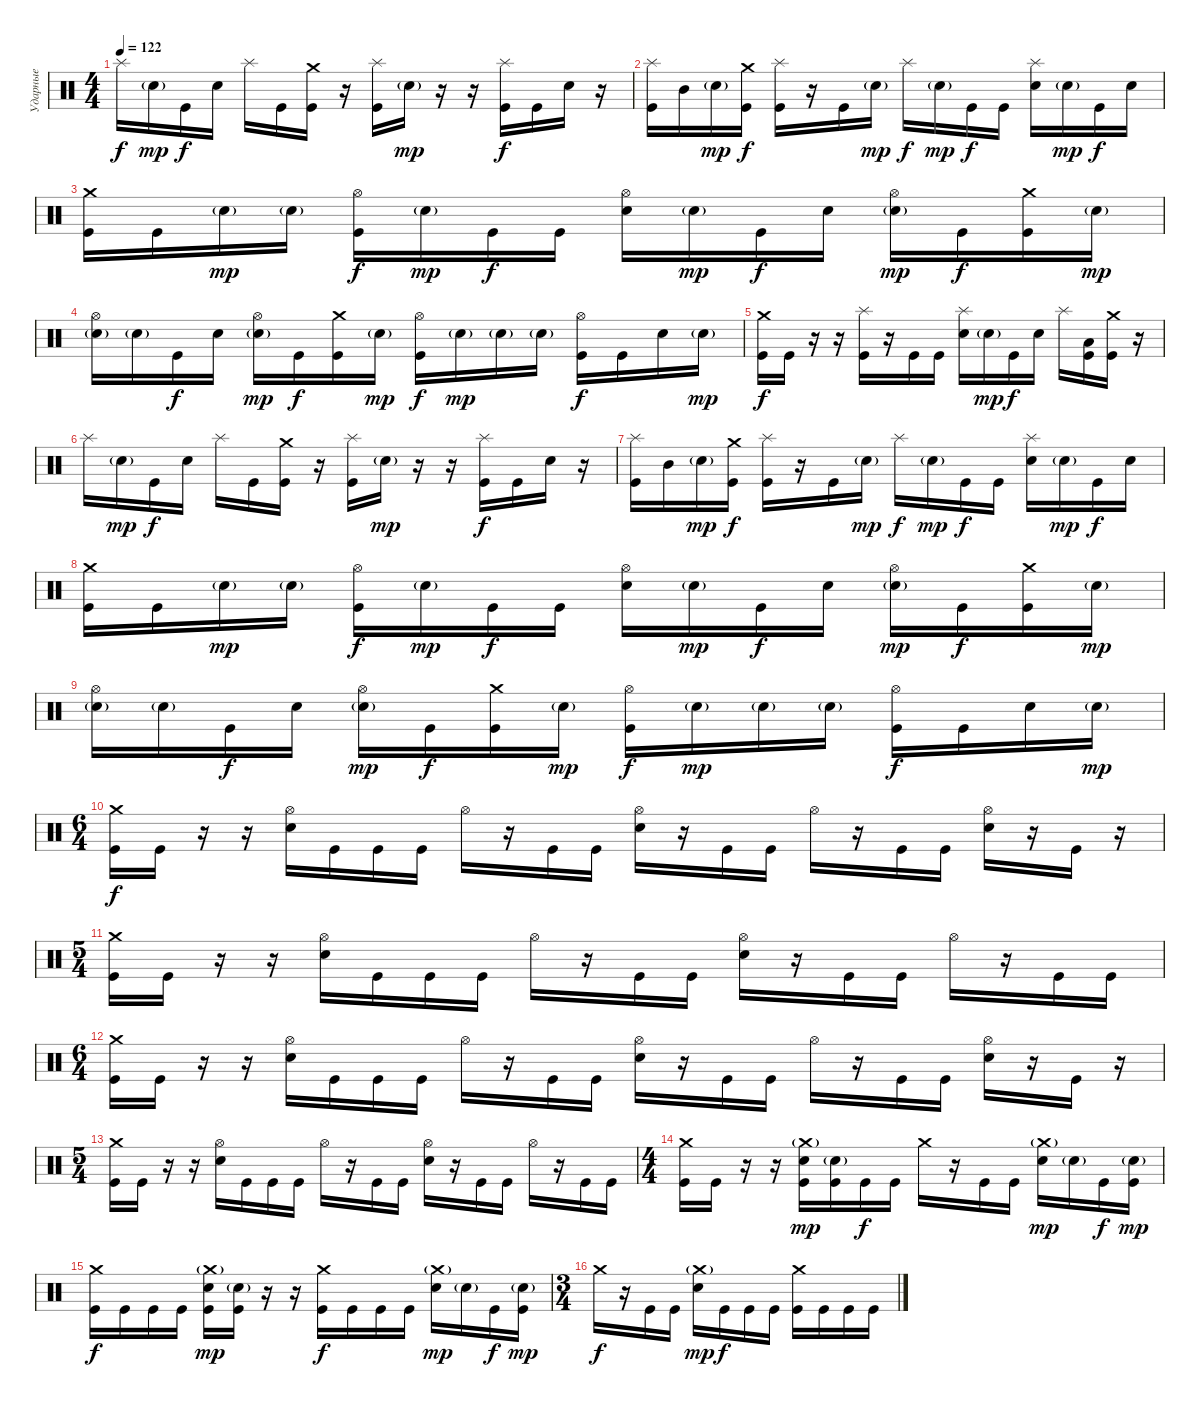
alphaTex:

\track ("Ударные" "Ударные") {instrument percussion}
\staff {score}
\articulation defaults
\ts (4 4)
\tempo 122
\clef neutral
\ks c "Splash (hit)".16{dy f} "Electric Snare (hit)"{g}.16{dy mp} "Kick (hit)".16{dy f} "Electric Snare (hit)".16 "Splash (hit)".16 "Kick (hit)".16
("Crash medium (hit)" "Kick (hit)").16 r.16 ("Splash (hit)" "Kick (hit)").16 "Electric Snare (hit)"{g}.16{dy mp} r.16 r.16 ("Splash (hit)" "Kick (hit)").16{dy f} "Kick (hit)".16 "Electric Snare (hit)".16 r.16 |
("Splash (hit)" "Kick (hit)").16 "Mid Tom (hit)".16 "Electric Snare (hit)"{g}.16{dy mp} ("Crash medium (hit)" "Kick (hit)").16{dy f} ("Splash (hit)" "Kick (hit)").16 r.16 "Kick (hit)".16 "Electric Snare (hit)"{g}.16{dy mp} "Splash (hit)".16{dy f} "Electric Snare (hit)"{g}.16{dy mp} "Kick (hit)".16{dy f} "Kick (hit)".16 ("Splash (hit)" "Electric Snare (hit)").16 "Electric Snare (hit)"{g}.16{dy mp} "Kick (hit)".16{dy f} "Electric Snare (hit)".16 |
("Crash medium (hit)" "Kick (hit)").16 "Kick (hit)".16 "Electric Snare (hit)"{g}.16{dy mp} "Electric Snare (hit)"{g}.16 ("Hi-Hat (open)" "Kick (hit)").16{dy f} "Electric Snare (hit)"{g}.16{dy mp} "Kick (hit)".16{dy f} "Kick (hit)".16 ("Hi-Hat (open)" "Electric Snare (hit)").16 "Electric Snare (hit)"{g}.16{dy mp} "Kick (hit)".16{dy f} "Electric Snare (hit)".16 ("Hi-Hat (open)" "Electric Snare (hit)"{g}).16{dy mp} "Kick (hit)".16{dy f} ("Crash medium (hit)" "Kick (hit)").16 "Electric Snare (hit)"{g}.16{dy mp} |
("Hi-Hat (open)" "Electric Snare (hit)"{g}).16 "Electric Snare (hit)"{g}.16 "Kick (hit)".16{dy f} "Electric Snare (hit)".16 ("Hi-Hat (open)" "Electric Snare (hit)"{g}).16{dy mp} "Kick (hit)".16{dy f} ("Crash medium (hit)" "Kick (hit)").16 "Electric Snare (hit)"{g}.16{dy mp} ("Hi-Hat (open)" "Kick (hit)").16{dy f} "Electric Snare (hit)"{g}.16{dy mp} "Electric Snare (hit)"{g}.16 "Electric Snare (hit)"{g}.16 ("Hi-Hat (open)" "Kick (hit)").16{dy f} "Kick (hit)".16 "Electric Snare (hit)".16 "Electric Snare (hit)"{g}.16{dy mp} |
("Crash medium (hit)" "Kick (hit)").16{dy f} "Kick (hit)".16 r.16 r.16 ("Splash (hit)" "Kick (hit)").16 r.16 "Kick (hit)".16 "Kick (hit)".16 ("Splash (hit)" "Electric Snare (hit)").16 "Electric Snare (hit)"{g}.16{dy mp} "Kick (hit)".16{dy f} "Electric Snare (hit)".16 "Splash (hit)".16 ("Low Tom (hit)" "Kick (hit)").16 ("Crash medium (hit)" "Kick (hit)").16 r.16 |
"Splash (hit)".16 "Electric Snare (hit)"{g}.16{dy mp} "Kick (hit)".16{dy f} "Electric Snare (hit)".16 "Splash (hit)".16 "Kick (hit)".16 ("Crash medium (hit)" "Kick (hit)").16 r.16 ("Splash (hit)" "Kick (hit)").16 "Electric Snare (hit)"{g}.16{dy mp} r.16 r.16 ("Splash (hit)" "Kick (hit)").16{dy f} "Kick (hit)".16 "Electric Snare (hit)".16 r.16 |
("Splash (hit)" "Kick (hit)").16 "Mid Tom (hit)".16 "Electric Snare (hit)"{g}.16{dy mp} ("Crash medium (hit)" "Kick (hit)").16{dy f} ("Splash (hit)" "Kick (hit)").16 r.16 "Kick (hit)".16 "Electric Snare (hit)"{g}.16{dy mp} "Splash (hit)".16{dy f} "Electric Snare (hit)"{g}.16{dy mp} "Kick (hit)".16{dy f} "Kick (hit)".16 ("Splash (hit)" "Electric Snare (hit)").16 "Electric Snare (hit)"{g}.16{dy mp} "Kick (hit)".16{dy f} "Electric Snare (hit)".16 |
("Crash medium (hit)" "Kick (hit)").16 "Kick (hit)".16 "Electric Snare (hit)"{g}.16{dy mp} "Electric Snare (hit)"{g}.16 ("Hi-Hat (open)" "Kick (hit)").16{dy f} "Electric Snare (hit)"{g}.16{dy mp} "Kick (hit)".16{dy f} "Kick (hit)".16 ("Hi-Hat (open)" "Electric Snare (hit)").16 "Electric Snare (hit)"{g}.16{dy mp} "Kick (hit)".16{dy f} "Electric Snare (hit)".16 ("Hi-Hat (open)" "Electric Snare (hit)"{g}).16{dy mp} "Kick (hit)".16{dy f} ("Crash medium (hit)" "Kick (hit)").16 "Electric Snare (hit)"{g}.16{dy mp} |
("Hi-Hat (open)" "Electric Snare (hit)"{g}).16 "Electric Snare (hit)"{g}.16 "Kick (hit)".16{dy f} "Electric Snare (hit)".16 ("Hi-Hat (open)" "Electric Snare (hit)"{g}).16{dy mp} "Kick (hit)".16{dy f} ("Crash medium (hit)" "Kick (hit)").16 "Electric Snare (hit)"{g}.16{dy mp} ("Hi-Hat (open)" "Kick (hit)").16{dy f} "Electric Snare (hit)"{g}.16{dy mp} "Electric Snare (hit)"{g}.16 "Electric Snare (hit)"{g}.16 ("Hi-Hat (open)" "Kick (hit)").16{dy f} "Kick (hit)".16 "Electric Snare (hit)".16 "Electric Snare (hit)"{g}.16{dy mp} |
\ts (6 4)
("Crash medium (hit)" "Kick (hit)").16{dy f} "Kick (hit)".16 r.16 r.16 ("Hi-Hat (open)" "Electric Snare (hit)").16 "Kick (hit)".16 "Kick (hit)".16 "Kick (hit)".16 "Hi-Hat (open)".16 r.16 "Kick (hit)".16 "Kick (hit)".16 ("Hi-Hat (open)" "Electric Snare (hit)").16 r.16 "Kick (hit)".16 "Kick (hit)".16 "Hi-Hat (open)".16 r.16 "Kick (hit)".16 "Kick (hit)".16 ("Hi-Hat (open)" "Electric Snare (hit)").16 r.16 "Kick (hit)".16 r.16 |
\ts (5 4)
("Crash medium (hit)" "Kick (hit)").16 "Kick (hit)".16 r.16 r.16 ("Hi-Hat (open)" "Electric Snare (hit)").16 "Kick (hit)".16 "Kick (hit)".16 "Kick (hit)".16 "Hi-Hat (open)".16 r.16 "Kick (hit)".16 "Kick (hit)".16 ("Hi-Hat (open)" "Electric Snare (hit)").16 r.16 "Kick (hit)".16 "Kick (hit)".16 "Hi-Hat (open)".16 r.16 "Kick (hit)".16 "Kick (hit)".16 |
\ts (6 4)
("Crash medium (hit)" "Kick (hit)").16 "Kick (hit)".16 r.16 r.16 ("Hi-Hat (open)" "Electric Snare (hit)").16 "Kick (hit)".16 "Kick (hit)".16 "Kick (hit)".16 "Hi-Hat (open)".16 r.16 "Kick (hit)".16 "Kick (hit)".16 ("Hi-Hat (open)" "Electric Snare (hit)").16 r.16 "Kick (hit)".16 "Kick (hit)".16 "Hi-Hat (open)".16 r.16 "Kick (hit)".16 "Kick (hit)".16 ("Hi-Hat (open)" "Electric Snare (hit)").16 r.16 "Kick (hit)".16 r.16 |
\ts (5 4)
("Crash medium (hit)" "Kick (hit)").16 "Kick (hit)".16 r.16 r.16 ("Hi-Hat (open)" "Electric Snare (hit)").16 "Kick (hit)".16 "Kick (hit)".16 "Kick (hit)".16 "Hi-Hat (open)".16 r.16 "Kick (hit)".16 "Kick (hit)".16 ("Hi-Hat (open)" "Electric Snare (hit)").16 r.16 "Kick (hit)".16 "Kick (hit)".16 "Hi-Hat (open)".16 r.16 "Kick (hit)".16 "Kick (hit)".16 |
\ts (4 4)
("Crash medium (hit)" "Kick (hit)").16 "Kick (hit)".16 r.16 r.16 ("Crash medium (hit)"{g} "Electric Snare (hit)" "Kick (hit)").16{dy mp} ("Electric Snare (hit)"{g} "Kick (hit)").16 "Kick (hit)".16{dy f} "Kick (hit)".16 "Crash medium (hit)".16 r.16 "Kick (hit)".16 "Kick (hit)".16 ("Crash medium (hit)"{g} "Electric Snare (hit)").16{dy mp} "Electric Snare (hit)"{g}.16 "Kick (hit)".16{dy f} ("Electric Snare (hit)"{g} "Kick (hit)").16{dy mp} |
("Crash medium (hit)" "Kick (hit)").16{dy f} "Kick (hit)".16 "Kick (hit)".16 "Kick (hit)".16 ("Crash medium (hit)"{g} "Electric Snare (hit)" "Kick (hit)").16{dy mp} ("Electric Snare (hit)"{g} "Kick (hit)").16 r.16 r.16 ("Crash medium (hit)" "Kick (hit)").16{dy f} "Kick (hit)".16 "Kick (hit)".16 "Kick (hit)".16 ("Crash medium (hit)"{g} "Electric Snare (hit)").16{dy mp} "Electric Snare (hit)"{g}.16 "Kick (hit)".16{dy f} ("Electric Snare (hit)"{g} "Kick (hit)").16{dy mp} |
\ts (3 4)
"Crash medium (hit)".16{dy f} r.16 "Kick (hit)".16 "Kick (hit)".16 ("Crash medium (hit)"{g} "Electric Snare (hit)").16{dy mp} "Kick (hit)".16{dy f} "Kick (hit)".16 "Kick (hit)".16 ("Crash medium (hit)" "Kick (hit)").16 "Kick (hit)".16 "Kick (hit)".16 "Kick (hit)".16
